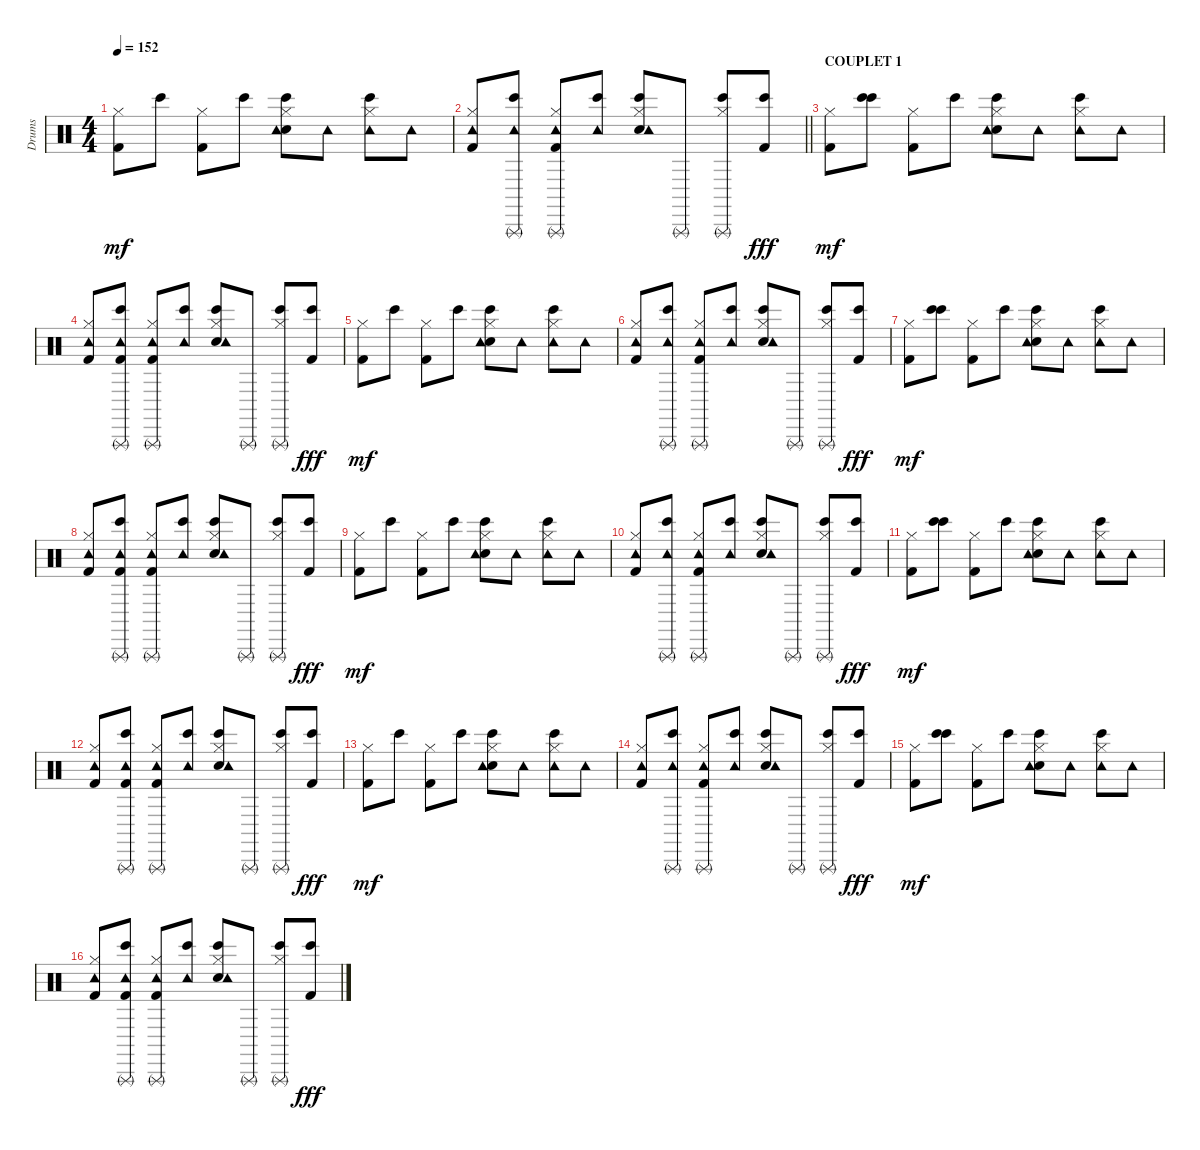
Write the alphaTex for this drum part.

\track ("Drums" "Drums") {instrument percussion}
\staff {score}
\articulation defaults
\ts (4 4)
\tempo 152
\clef neutral
\ks c
("Kick (hit) 2" "Hi-Hat (closed)").8{dy mf} "Bongo High (hit)".8 ("Kick (hit) 2" "Hi-Hat (closed)").8 "Bongo High (hit)".8 ("Bongo High (hit)" "Electric Snare (hit)" "Hi-Hat (closed)" "Tambourine (hit)").8 "Tambourine (hit)".8 ("Tambourine (hit)" "Bongo High (hit)" "Hi-Hat (closed)").8 "Tambourine (hit)".8 |
\barLineRight lightlight
("Tambourine (hit)" "Kick (hit) 2" "Hi-Hat (closed)").8 ("Tambourine (hit)" "Bongo High (hit)" "Triangle (rnute)").8 ("Kick (hit) 2" "Hi-Hat (closed)" "Triangle (rnute)" "Tambourine (hit)").8 ("Tambourine (hit)" "Bongo High (hit)").8 ("Bongo High (hit)" "Electric Snare (hit)" "Hi-Hat (closed)" "Tambourine (hit)").8 "Triangle (rnute)".8 ("Bongo High (hit)" "Hi-Hat (closed)" "Triangle (rnute)").8 ("Bongo High (hit)" "Kick (hit) 2").8{dy fff} |
\section ("" "COUPLET 1")
("Kick (hit) 2" "Hi-Hat (closed)").8{dy mf} ("Bongo High (hit)" "Bongo High (hit)").8 ("Kick (hit) 2" "Hi-Hat (closed)").8 "Bongo High (hit)".8 ("Bongo High (hit)" "Electric Snare (hit)" "Hi-Hat (closed)" "Tambourine (hit)").8 "Tambourine (hit)".8 ("Tambourine (hit)" "Bongo High (hit)" "Hi-Hat (closed)").8 "Tambourine (hit)".8 |
("Tambourine (hit)" "Kick (hit) 2" "Hi-Hat (closed)").8 ("Tambourine (hit)" "Bongo High (hit)" "Kick (hit) 2" "Triangle (rnute)").8 ("Kick (hit) 2" "Hi-Hat (closed)" "Triangle (rnute)" "Tambourine (hit)").8 ("Tambourine (hit)" "Bongo High (hit)").8 ("Bongo High (hit)" "Electric Snare (hit)" "Hi-Hat (closed)" "Tambourine (hit)").8 "Triangle (rnute)".8 ("Bongo High (hit)" "Hi-Hat (closed)" "Triangle (rnute)").8 ("Bongo High (hit)" "Kick (hit) 2").8{dy fff} |
("Kick (hit) 2" "Hi-Hat (closed)").8{dy mf} "Bongo High (hit)".8 ("Kick (hit) 2" "Hi-Hat (closed)").8 "Bongo High (hit)".8 ("Bongo High (hit)" "Electric Snare (hit)" "Hi-Hat (closed)" "Tambourine (hit)").8 "Tambourine (hit)".8 ("Tambourine (hit)" "Bongo High (hit)" "Hi-Hat (closed)").8 "Tambourine (hit)".8 |
("Tambourine (hit)" "Kick (hit) 2" "Hi-Hat (closed)").8 ("Tambourine (hit)" "Bongo High (hit)" "Triangle (rnute)").8 ("Kick (hit) 2" "Hi-Hat (closed)" "Triangle (rnute)" "Tambourine (hit)").8 ("Tambourine (hit)" "Bongo High (hit)").8 ("Bongo High (hit)" "Electric Snare (hit)" "Hi-Hat (closed)" "Tambourine (hit)").8 "Triangle (rnute)".8 ("Bongo High (hit)" "Hi-Hat (closed)" "Triangle (rnute)").8 ("Bongo High (hit)" "Kick (hit) 2").8{dy fff} |
("Kick (hit) 2" "Hi-Hat (closed)").8{dy mf} ("Bongo High (hit)" "Bongo High (hit)").8 ("Kick (hit) 2" "Hi-Hat (closed)").8 "Bongo High (hit)".8 ("Bongo High (hit)" "Electric Snare (hit)" "Hi-Hat (closed)" "Tambourine (hit)").8 "Tambourine (hit)".8 ("Tambourine (hit)" "Bongo High (hit)" "Hi-Hat (closed)").8 "Tambourine (hit)".8 |
("Tambourine (hit)" "Kick (hit) 2" "Hi-Hat (closed)").8 ("Tambourine (hit)" "Bongo High (hit)" "Kick (hit) 2" "Triangle (rnute)").8 ("Kick (hit) 2" "Hi-Hat (closed)" "Triangle (rnute)" "Tambourine (hit)").8 ("Tambourine (hit)" "Bongo High (hit)").8 ("Bongo High (hit)" "Electric Snare (hit)" "Hi-Hat (closed)" "Tambourine (hit)").8 "Triangle (rnute)".8 ("Bongo High (hit)" "Hi-Hat (closed)" "Triangle (rnute)").8 ("Bongo High (hit)" "Kick (hit) 2").8{dy fff} |
("Kick (hit) 2" "Hi-Hat (closed)").8{dy mf} "Bongo High (hit)".8 ("Kick (hit) 2" "Hi-Hat (closed)").8 "Bongo High (hit)".8 ("Bongo High (hit)" "Electric Snare (hit)" "Hi-Hat (closed)" "Tambourine (hit)").8 "Tambourine (hit)".8 ("Tambourine (hit)" "Bongo High (hit)" "Hi-Hat (closed)").8 "Tambourine (hit)".8 |
("Tambourine (hit)" "Kick (hit) 2" "Hi-Hat (closed)").8 ("Tambourine (hit)" "Bongo High (hit)" "Triangle (rnute)").8 ("Kick (hit) 2" "Hi-Hat (closed)" "Triangle (rnute)" "Tambourine (hit)").8 ("Tambourine (hit)" "Bongo High (hit)").8 ("Bongo High (hit)" "Electric Snare (hit)" "Hi-Hat (closed)" "Tambourine (hit)").8 "Triangle (rnute)".8 ("Bongo High (hit)" "Hi-Hat (closed)" "Triangle (rnute)").8 ("Bongo High (hit)" "Kick (hit) 2").8{dy fff} |
("Kick (hit) 2" "Hi-Hat (closed)").8{dy mf} ("Bongo High (hit)" "Bongo High (hit)").8 ("Kick (hit) 2" "Hi-Hat (closed)").8 "Bongo High (hit)".8 ("Bongo High (hit)" "Electric Snare (hit)" "Hi-Hat (closed)" "Tambourine (hit)").8 "Tambourine (hit)".8 ("Tambourine (hit)" "Bongo High (hit)" "Hi-Hat (closed)").8 "Tambourine (hit)".8 |
("Tambourine (hit)" "Kick (hit) 2" "Hi-Hat (closed)").8 ("Tambourine (hit)" "Bongo High (hit)" "Kick (hit) 2" "Triangle (rnute)").8 ("Kick (hit) 2" "Hi-Hat (closed)" "Triangle (rnute)" "Tambourine (hit)").8 ("Tambourine (hit)" "Bongo High (hit)").8 ("Bongo High (hit)" "Electric Snare (hit)" "Hi-Hat (closed)" "Tambourine (hit)").8 "Triangle (rnute)".8 ("Bongo High (hit)" "Hi-Hat (closed)" "Triangle (rnute)").8 ("Bongo High (hit)" "Kick (hit) 2").8{dy fff} |
("Kick (hit) 2" "Hi-Hat (closed)").8{dy mf} "Bongo High (hit)".8 ("Kick (hit) 2" "Hi-Hat (closed)").8 "Bongo High (hit)".8 ("Bongo High (hit)" "Electric Snare (hit)" "Hi-Hat (closed)" "Tambourine (hit)").8 "Tambourine (hit)".8 ("Tambourine (hit)" "Bongo High (hit)" "Hi-Hat (closed)").8 "Tambourine (hit)".8 |
("Tambourine (hit)" "Kick (hit) 2" "Hi-Hat (closed)").8 ("Tambourine (hit)" "Bongo High (hit)" "Triangle (rnute)").8 ("Kick (hit) 2" "Hi-Hat (closed)" "Triangle (rnute)" "Tambourine (hit)").8 ("Tambourine (hit)" "Bongo High (hit)").8 ("Bongo High (hit)" "Electric Snare (hit)" "Hi-Hat (closed)" "Tambourine (hit)").8 "Triangle (rnute)".8 ("Bongo High (hit)" "Hi-Hat (closed)" "Triangle (rnute)").8 ("Bongo High (hit)" "Kick (hit) 2").8{dy fff} |
("Kick (hit) 2" "Hi-Hat (closed)").8{dy mf} ("Bongo High (hit)" "Bongo High (hit)").8 ("Kick (hit) 2" "Hi-Hat (closed)").8 "Bongo High (hit)".8 ("Bongo High (hit)" "Electric Snare (hit)" "Hi-Hat (closed)" "Tambourine (hit)").8 "Tambourine (hit)".8 ("Tambourine (hit)" "Bongo High (hit)" "Hi-Hat (closed)").8 "Tambourine (hit)".8 |
("Tambourine (hit)" "Kick (hit) 2" "Hi-Hat (closed)").8 ("Tambourine (hit)" "Bongo High (hit)" "Kick (hit) 2" "Triangle (rnute)").8 ("Kick (hit) 2" "Hi-Hat (closed)" "Triangle (rnute)" "Tambourine (hit)").8 ("Tambourine (hit)" "Bongo High (hit)").8 ("Bongo High (hit)" "Electric Snare (hit)" "Hi-Hat (closed)" "Tambourine (hit)").8 "Triangle (rnute)".8 ("Bongo High (hit)" "Hi-Hat (closed)" "Triangle (rnute)").8 ("Bongo High (hit)" "Kick (hit) 2").8{dy fff}
